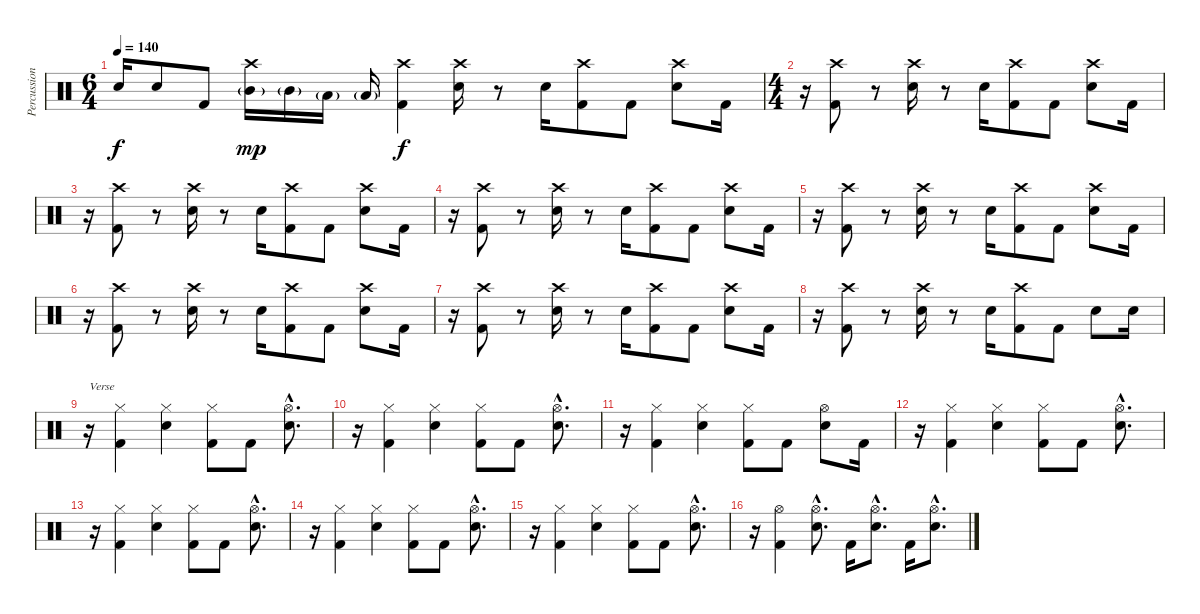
\track ("Percussion" "Percussion") {instrument percussion}
\staff {score}
\articulation defaults
\ts (6 4)
\tempo 140
\clef neutral
\ks c "Electric Snare (hit)".16{dy f} "Electric Snare (hit)".8 "Kick (hit) 2".8
("Crash high (hit)" "Mid Tom (hit)"{g}).16{dy mp} "Mid Tom (hit)"{g}.16 "Low Tom (hit)"{g}.16 "Low Tom (hit)"{g}.16 ("Crash high (hit)" "Kick (hit) 2").4{dy f} ("Crash high (hit)" "Electric Snare (hit)").16 r.8 "Electric Snare (hit)".16 ("Crash high (hit)" "Kick (hit) 2").8 "Kick (hit) 2".8 ("Crash high (hit)" "Electric Snare (hit)").8 "Kick (hit) 2".16 |
\ts (4 4)
r.16 ("Crash high (hit)" "Kick (hit) 2").8 r.8 ("Crash high (hit)" "Electric Snare (hit)").16 r.8 "Electric Snare (hit)".16 ("Crash high (hit)" "Kick (hit) 2").8 "Kick (hit) 2".8 ("Crash high (hit)" "Electric Snare (hit)").8 "Kick (hit) 2".16 |
r.16 ("Crash high (hit)" "Kick (hit) 2").8 r.8 ("Crash high (hit)" "Electric Snare (hit)").16 r.8 "Electric Snare (hit)".16 ("Crash high (hit)" "Kick (hit) 2").8 "Kick (hit) 2".8 ("Crash high (hit)" "Electric Snare (hit)").8 "Kick (hit) 2".16 |
r.16 ("Crash high (hit)" "Kick (hit) 2").8 r.8 ("Crash high (hit)" "Electric Snare (hit)").16 r.8 "Electric Snare (hit)".16 ("Crash high (hit)" "Kick (hit) 2").8 "Kick (hit) 2".8 ("Crash high (hit)" "Electric Snare (hit)").8 "Kick (hit) 2".16 |
r.16 ("Crash high (hit)" "Kick (hit) 2").8 r.8 ("Crash high (hit)" "Electric Snare (hit)").16 r.8 "Electric Snare (hit)".16 ("Crash high (hit)" "Kick (hit) 2").8 "Kick (hit) 2".8 ("Crash high (hit)" "Electric Snare (hit)").8 "Kick (hit) 2".16 |
r.16 ("Crash high (hit)" "Kick (hit) 2").8 r.8 ("Crash high (hit)" "Electric Snare (hit)").16 r.8 "Electric Snare (hit)".16 ("Crash high (hit)" "Kick (hit) 2").8 "Kick (hit) 2".8 ("Crash high (hit)" "Electric Snare (hit)").8 "Kick (hit) 2".16 |
r.16 ("Crash high (hit)" "Kick (hit) 2").8 r.8 ("Crash high (hit)" "Electric Snare (hit)").16 r.8 "Electric Snare (hit)".16 ("Crash high (hit)" "Kick (hit) 2").8 "Kick (hit) 2".8 ("Crash high (hit)" "Electric Snare (hit)").8 "Kick (hit) 2".16 |
r.16 ("Crash high (hit)" "Kick (hit) 2").8 r.8 ("Crash high (hit)" "Electric Snare (hit)").16 r.8 "Electric Snare (hit)".16 ("Crash high (hit)" "Kick (hit) 2").8 "Kick (hit) 2".8 "Electric Snare (hit)".8 "Electric Snare (hit)".16 |
r.16{txt "Verse"} ("Hi-Hat (closed)" "Kick (hit) 2").4 ("Hi-Hat (closed)" "Electric Snare (hit)").4 ("Hi-Hat (closed)" "Kick (hit) 2").8 "Kick (hit) 2".8 ("Hi-Hat (open)"{hac} "Electric Snare (hit)"{hac}).8{d} |
r.16 ("Hi-Hat (closed)" "Kick (hit) 2").4 ("Hi-Hat (closed)" "Electric Snare (hit)").4 ("Hi-Hat (closed)" "Kick (hit) 2").8 "Kick (hit) 2".8 ("Hi-Hat (open)"{hac} "Electric Snare (hit)"{hac}).8{d} |
r.16 ("Hi-Hat (closed)" "Kick (hit) 2").4 ("Hi-Hat (closed)" "Electric Snare (hit)").4 ("Hi-Hat (closed)" "Kick (hit) 2").8 "Kick (hit) 2".8 ("Hi-Hat (open)" "Electric Snare (hit)").8 "Kick (hit) 2".16 |
r.16 ("Hi-Hat (closed)" "Kick (hit) 2").4 ("Hi-Hat (closed)" "Electric Snare (hit)").4 ("Hi-Hat (closed)" "Kick (hit) 2").8 "Kick (hit) 2".8 ("Hi-Hat (open)"{hac} "Electric Snare (hit)"{hac}).8{d} |
r.16 ("Hi-Hat (closed)" "Kick (hit) 2").4 ("Hi-Hat (closed)" "Electric Snare (hit)").4 ("Hi-Hat (closed)" "Kick (hit) 2").8 "Kick (hit) 2".8 ("Hi-Hat (open)"{hac} "Electric Snare (hit)"{hac}).8{d} |
r.16 ("Hi-Hat (closed)" "Kick (hit) 2").4 ("Hi-Hat (closed)" "Electric Snare (hit)").4 ("Hi-Hat (closed)" "Kick (hit) 2").8 "Kick (hit) 2".8 ("Hi-Hat (open)"{hac} "Electric Snare (hit)"{hac}).8{d} |
r.16 ("Hi-Hat (closed)" "Kick (hit) 2").4 ("Hi-Hat (closed)" "Electric Snare (hit)").4 ("Hi-Hat (closed)" "Kick (hit) 2").8 "Kick (hit) 2".8 ("Hi-Hat (open)"{hac} "Electric Snare (hit)"{hac}).8{d} |
r.16 ("Hi-Hat (open)" "Kick (hit) 2").4 ("Hi-Hat (open)"{hac} "Electric Snare (hit)"{hac}).8{d} "Kick (hit) 2".16 ("Hi-Hat (open)"{hac} "Electric Snare (hit)"{hac}).8{d} "Kick (hit) 2".16 ("Hi-Hat (open)"{hac} "Electric Snare (hit)"{hac}).8{d}
